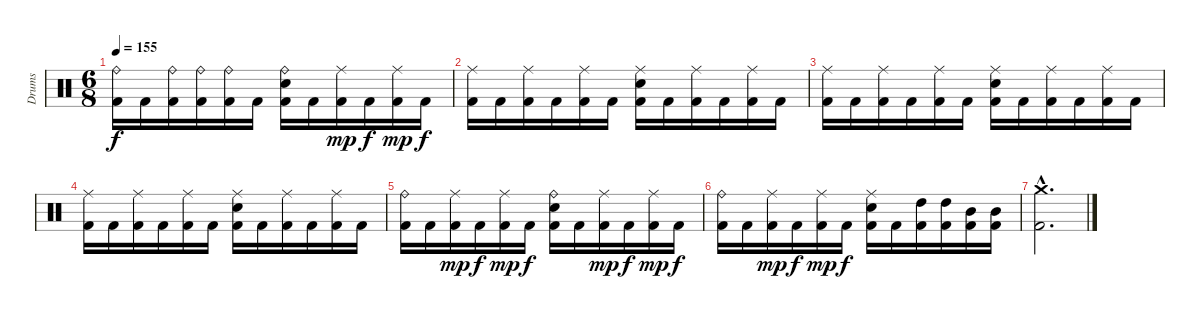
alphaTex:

\track ("Drums" "Drums") {instrument percussion}
\staff {score}
\articulation defaults
\ts (6 8)
\tempo 155
\clef neutral
\ks c
("Kick (hit) 2" "Ride (bell)").16{dy f} "Kick (hit) 2".16 ("Kick (hit) 2" "Ride (bell)").16 ("Kick (hit) 2" "Ride (bell)").16 ("Kick (hit) 2" "Ride (bell)").16 "Kick (hit) 2".16 ("Kick (hit) 2" "Electric Snare (hit)" "Ride (bell)").16 "Kick (hit) 2".16 ("Kick (hit) 2" "Ride (middle)").16{dy mp} "Kick (hit) 2".16{dy f} ("Kick (hit) 2" "Ride (middle)").16{dy mp} "Kick (hit) 2".16{dy f} |
("Kick (hit) 2" "Ride (middle)").16 "Kick (hit) 2".16 ("Kick (hit) 2" "Ride (middle)").16 "Kick (hit) 2".16 ("Kick (hit) 2" "Ride (middle)").16 "Kick (hit) 2".16 ("Kick (hit) 2" "Electric Snare (hit)" "Ride (middle)").16 "Kick (hit) 2".16 ("Kick (hit) 2" "Ride (middle)").16 "Kick (hit) 2".16 ("Kick (hit) 2" "Ride (middle)").16 "Kick (hit) 2".16 |
("Kick (hit) 2" "Ride (middle)").16 "Kick (hit) 2".16 ("Kick (hit) 2" "Ride (middle)").16 "Kick (hit) 2".16 ("Kick (hit) 2" "Ride (middle)").16 "Kick (hit) 2".16 ("Kick (hit) 2" "Electric Snare (hit)" "Ride (middle)").16 "Kick (hit) 2".16 ("Kick (hit) 2" "Ride (middle)").16 "Kick (hit) 2".16 ("Kick (hit) 2" "Ride (middle)").16 "Kick (hit) 2".16 |
("Kick (hit) 2" "Ride (middle)").16 "Kick (hit) 2".16 ("Kick (hit) 2" "Ride (middle)").16 "Kick (hit) 2".16 ("Kick (hit) 2" "Ride (middle)").16 "Kick (hit) 2".16 ("Kick (hit) 2" "Electric Snare (hit)" "Ride (middle)").16 "Kick (hit) 2".16 ("Kick (hit) 2" "Ride (middle)").16 "Kick (hit) 2".16 ("Kick (hit) 2" "Ride (middle)").16 "Kick (hit) 2".16 |
("Kick (hit) 2" "Ride (bell)").16 "Kick (hit) 2".16 ("Kick (hit) 2" "Ride (middle)").16{dy mp} "Kick (hit) 2".16{dy f} ("Kick (hit) 2" "Ride (middle)").16{dy mp} "Kick (hit) 2".16{dy f} ("Kick (hit) 2" "Electric Snare (hit)" "Ride (bell)").16 "Kick (hit) 2".16 ("Kick (hit) 2" "Ride (middle)").16{dy mp} "Kick (hit) 2".16{dy f} ("Kick (hit) 2" "Ride (middle)").16{dy mp} "Kick (hit) 2".16{dy f} |
("Kick (hit) 2" "Ride (bell)").16 "Kick (hit) 2".16 ("Kick (hit) 2" "Ride (middle)").16{dy mp} "Kick (hit) 2".16{dy f} ("Kick (hit) 2" "Ride (middle)").16{dy mp} "Kick (hit) 2".16{dy f} ("Kick (hit) 2" "Electric Snare (hit)" "Ride (middle)").16 "Kick (hit) 2".16 ("Kick (hit) 2" "High Tom (hit)").16 ("Kick (hit) 2" "High Tom (hit)").16 ("Kick (hit) 2" "Mid Tom (hit)").16 ("Kick (hit) 2" "Mid Tom (hit)").16 |
("Kick (hit) 2"{hac} "Crash medium (hit)"{hac}).2{d}
